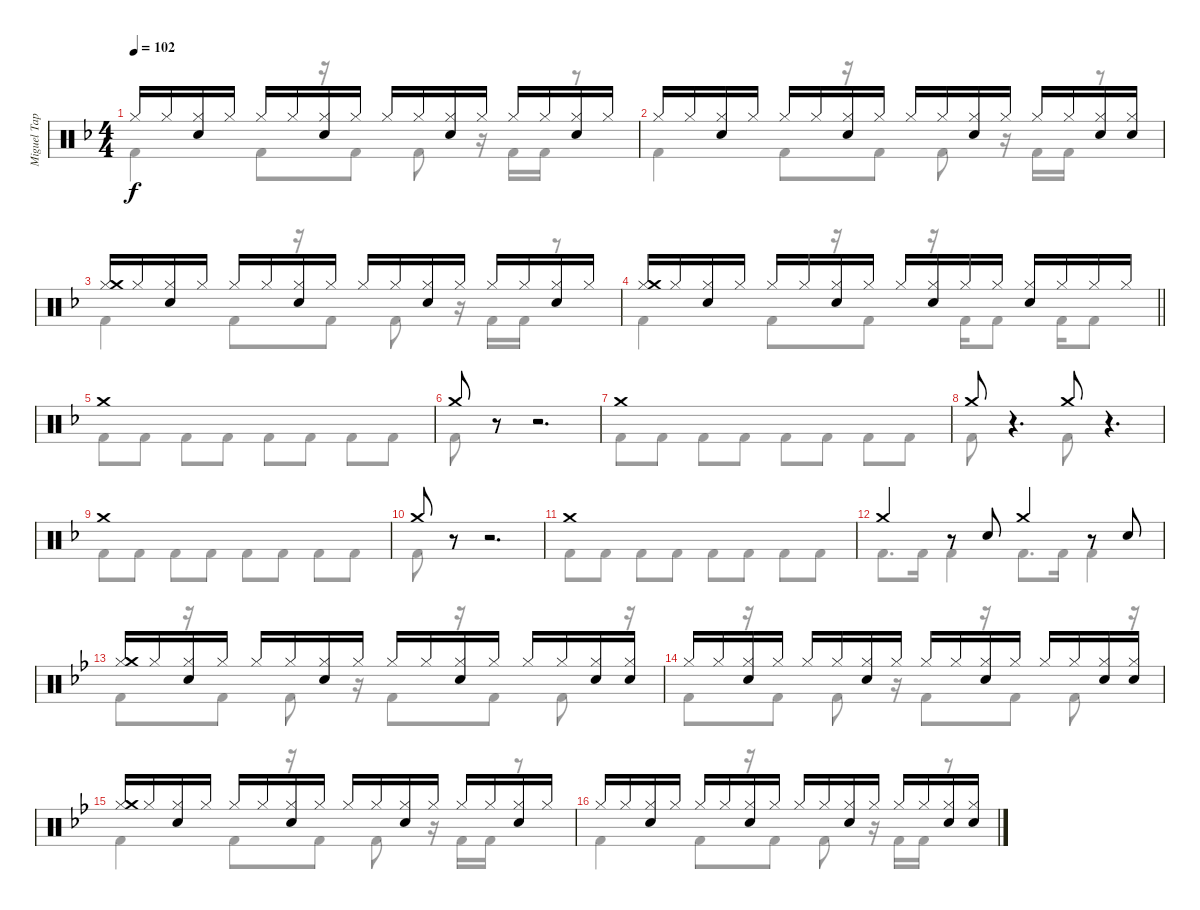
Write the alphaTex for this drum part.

\track ("Miguel Tapia (Batería)" "Miguel Tap") {instrument percussion}
\staff {score}
\articulation defaults
\voice
\ts (4 4)
\tempo 102
\clef neutral
\ks f "Hi-Hat (closed)".16{dy f} "Hi-Hat (closed)".16
("Hi-Hat (closed)" "Snare (hit) 2").16 "Hi-Hat (closed)".16 "Hi-Hat (closed)".16 "Hi-Hat (closed)".16 ("Hi-Hat (closed)" "Snare (hit) 2").16 "Hi-Hat (closed)".16 "Hi-Hat (closed)".16 "Hi-Hat (closed)".16 ("Hi-Hat (closed)" "Snare (hit) 2").16 "Hi-Hat (closed)".16 "Hi-Hat (closed)".16 "Hi-Hat (closed)".16 ("Hi-Hat (closed)" "Snare (hit) 2").16 "Hi-Hat (closed)".16 |
"Hi-Hat (closed)".16 "Hi-Hat (closed)".16 ("Hi-Hat (closed)" "Snare (hit) 2").16 "Hi-Hat (closed)".16 "Hi-Hat (closed)".16 "Hi-Hat (closed)".16 ("Hi-Hat (closed)" "Snare (hit) 2").16 "Hi-Hat (closed)".16 "Hi-Hat (closed)".16 "Hi-Hat (closed)".16 ("Hi-Hat (closed)" "Snare (hit) 2").16 "Hi-Hat (closed)".16 "Hi-Hat (closed)".16 "Hi-Hat (closed)".16 ("Hi-Hat (closed)" "Snare (hit) 2").16 ("Hi-Hat (closed)" "Snare (hit) 2").16 |
("Hi-Hat (closed)" "Crash medium (hit)").16 "Hi-Hat (closed)".16 ("Hi-Hat (closed)" "Snare (hit) 2").16 "Hi-Hat (closed)".16 "Hi-Hat (closed)".16 "Hi-Hat (closed)".16 ("Hi-Hat (closed)" "Snare (hit) 2").16 "Hi-Hat (closed)".16 "Hi-Hat (closed)".16 "Hi-Hat (closed)".16 ("Hi-Hat (closed)" "Snare (hit) 2").16 "Hi-Hat (closed)".16 "Hi-Hat (closed)".16 "Hi-Hat (closed)".16 ("Hi-Hat (closed)" "Snare (hit) 2").16 "Hi-Hat (closed)".16 |
\barLineRight lightlight
("Hi-Hat (closed)" "Crash medium (hit)").16 "Hi-Hat (closed)".16 ("Hi-Hat (closed)" "Snare (hit) 2").16 "Hi-Hat (closed)".16 "Hi-Hat (closed)".16 "Hi-Hat (closed)".16 ("Hi-Hat (closed)" "Snare (hit) 2").16 "Hi-Hat (closed)".16 "Hi-Hat (closed)".16 ("Hi-Hat (closed)" "Snare (hit) 2").16 "Hi-Hat (closed)".16 "Hi-Hat (closed)".16 ("Hi-Hat (closed)" "Snare (hit) 2").16 "Hi-Hat (closed)".16 "Hi-Hat (closed)".16 "Hi-Hat (closed)".16 |
"Crash medium (hit)".1 |
"Crash medium (hit)".8 r.8 r.2{d} |
"Crash medium (hit)".1 |
"Crash medium (hit)".8 r.4{d} "Crash medium (hit)".8 r.4{d} |
"Crash medium (hit)".1 |
"Crash medium (hit)".8 r.8 r.2{d} |
"Crash medium (hit)".1 |
"Crash medium (hit)".4 r.8 "Snare (hit) 2".8 "Crash medium (hit)".4 r.8 "Snare (hit) 2".8 |
\ks bb
("Hi-Hat (closed)" "Crash medium (hit)").16 "Hi-Hat (closed)".16 ("Hi-Hat (closed)" "Snare (hit) 2").16 "Hi-Hat (closed)".16 "Hi-Hat (closed)".16 "Hi-Hat (closed)".16 ("Hi-Hat (closed)" "Snare (hit) 2").16 "Hi-Hat (closed)".16 "Hi-Hat (closed)".16 "Hi-Hat (closed)".16 ("Hi-Hat (closed)" "Snare (hit) 2").16 "Hi-Hat (closed)".16 "Hi-Hat (closed)".16 "Hi-Hat (closed)".16 ("Hi-Hat (closed)" "Snare (hit) 2").16 ("Hi-Hat (closed)" "Snare (hit) 2").16 |
"Hi-Hat (closed)".16 "Hi-Hat (closed)".16 ("Hi-Hat (closed)" "Snare (hit) 2").16 "Hi-Hat (closed)".16 "Hi-Hat (closed)".16 "Hi-Hat (closed)".16 ("Hi-Hat (closed)" "Snare (hit) 2").16 "Hi-Hat (closed)".16 "Hi-Hat (closed)".16 "Hi-Hat (closed)".16 ("Hi-Hat (closed)" "Snare (hit) 2").16 "Hi-Hat (closed)".16 "Hi-Hat (closed)".16 "Hi-Hat (closed)".16 ("Hi-Hat (closed)" "Snare (hit) 2").16 ("Hi-Hat (closed)" "Snare (hit) 2").16 |
("Hi-Hat (closed)" "Crash medium (hit)").16 "Hi-Hat (closed)".16 ("Hi-Hat (closed)" "Snare (hit) 2").16 "Hi-Hat (closed)".16 "Hi-Hat (closed)".16 "Hi-Hat (closed)".16 ("Hi-Hat (closed)" "Snare (hit) 2").16 "Hi-Hat (closed)".16 "Hi-Hat (closed)".16 "Hi-Hat (closed)".16 ("Hi-Hat (closed)" "Snare (hit) 2").16 "Hi-Hat (closed)".16 "Hi-Hat (closed)".16 "Hi-Hat (closed)".16 ("Hi-Hat (closed)" "Snare (hit) 2").16 "Hi-Hat (closed)".16 |
"Hi-Hat (closed)".16 "Hi-Hat (closed)".16 ("Hi-Hat (closed)" "Snare (hit) 2").16 "Hi-Hat (closed)".16 "Hi-Hat (closed)".16 "Hi-Hat (closed)".16 ("Hi-Hat (closed)" "Snare (hit) 2").16 "Hi-Hat (closed)".16 "Hi-Hat (closed)".16 "Hi-Hat (closed)".16 ("Hi-Hat (closed)" "Snare (hit) 2").16 "Hi-Hat (closed)".16 "Hi-Hat (closed)".16 "Hi-Hat (closed)".16 ("Hi-Hat (closed)" "Snare (hit) 2").16 ("Hi-Hat (closed)" "Snare (hit) 2").16
\voice
\clef neutral
\ottava regular
\simile none
\ks f "Kick (hit) 2".4{dy f} "Kick (hit) 2".8
r.16 "Kick (hit) 2".8 "Kick (hit) 2".8 r.16 "Kick (hit) 2".16 "Kick (hit) 2".16 r.8 |
"Kick (hit) 2".4 "Kick (hit) 2".8 r.16 "Kick (hit) 2".8 "Kick (hit) 2".8 r.16 "Kick (hit) 2".16 "Kick (hit) 2".16 r.8 |
"Kick (hit) 2".4 "Kick (hit) 2".8 r.16 "Kick (hit) 2".8 "Kick (hit) 2".8 r.16 "Kick (hit) 2".16 "Kick (hit) 2".16 r.8 |
\barLineRight lightlight "Kick (hit) 2".4 "Kick (hit) 2".8
r.16 "Kick (hit) 2".8 r.16 "Kick (hit) 2".16 "Kick (hit) 2".8 "Kick (hit) 2".16 "Kick (hit) 2".8 |
"Kick (hit) 2".8 "Kick (hit) 2".8 "Kick (hit) 2".8 "Kick (hit) 2".8 "Kick (hit) 2".8 "Kick (hit) 2".8 "Kick (hit) 2".8 "Kick (hit) 2".8 |
"Kick (hit) 2".8 r.8 r.2{d} |
"Kick (hit) 2".8 "Kick (hit) 2".8 "Kick (hit) 2".8 "Kick (hit) 2".8 "Kick (hit) 2".8 "Kick (hit) 2".8 "Kick (hit) 2".8 "Kick (hit) 2".8 |
"Kick (hit) 2".8 r.4{d} "Kick (hit) 2".8 r.4{d} |
"Kick (hit) 2".8 "Kick (hit) 2".8 "Kick (hit) 2".8 "Kick (hit) 2".8 "Kick (hit) 2".8 "Kick (hit) 2".8 "Kick (hit) 2".8 "Kick (hit) 2".8 |
"Kick (hit) 2".8 r.8 r.2{d} |
"Kick (hit) 2".8 "Kick (hit) 2".8 "Kick (hit) 2".8 "Kick (hit) 2".8 "Kick (hit) 2".8 "Kick (hit) 2".8 "Kick (hit) 2".8 "Kick (hit) 2".8 |
"Kick (hit) 2".8{d} "Kick (hit) 2".16 "Kick (hit) 2".4 "Kick (hit) 2".8{d} "Kick (hit) 2".16 "Kick (hit) 2".4 |
\ks bb "Kick (hit) 2".8
r.16 "Kick (hit) 2".8 "Kick (hit) 2".8 r.16 "Kick (hit) 2".8 r.16 "Kick (hit) 2".8 "Kick (hit) 2".8 r.16 |
"Kick (hit) 2".8 r.16 "Kick (hit) 2".8 "Kick (hit) 2".8 r.16 "Kick (hit) 2".8 r.16 "Kick (hit) 2".8 "Kick (hit) 2".8 r.16 |
"Kick (hit) 2".4 "Kick (hit) 2".8 r.16 "Kick (hit) 2".8 "Kick (hit) 2".8 r.16 "Kick (hit) 2".16 "Kick (hit) 2".16 r.8 |
"Kick (hit) 2".4 "Kick (hit) 2".8 r.16 "Kick (hit) 2".8 "Kick (hit) 2".8 r.16 "Kick (hit) 2".16 "Kick (hit) 2".16 r.8
